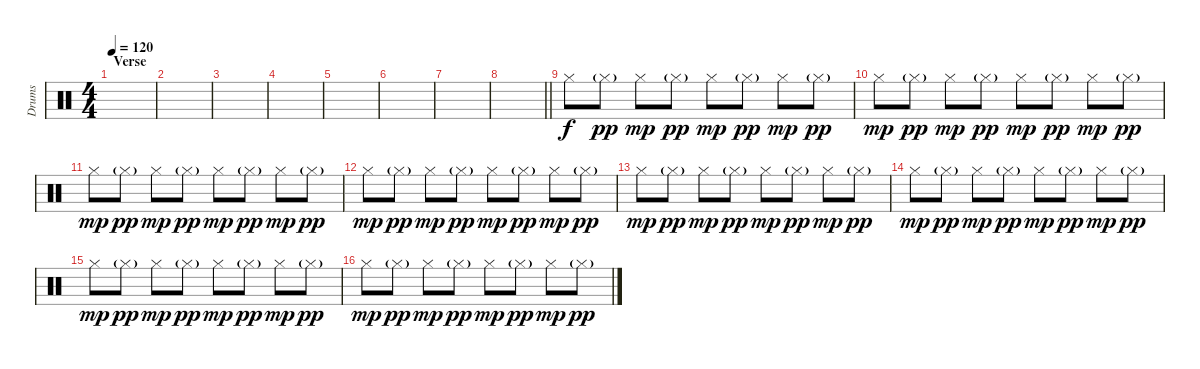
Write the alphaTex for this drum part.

\track ("Drums" "Drums") {instrument percussion}
\staff {score}
\articulation defaults
\ts (4 4)
\section ("" "Verse")
\tempo 120
\clef neutral
\ks c
|
|
|
|
|
|
|
\barLineRight lightlight
|
"Hi-Hat (closed)".8 "Hi-Hat (closed)"{g}.8{dy pp} "Hi-Hat (closed)".8{dy mp} "Hi-Hat (closed)"{g}.8{dy pp} "Hi-Hat (closed)".8{dy mp} "Hi-Hat (closed)"{g}.8{dy pp} "Hi-Hat (closed)".8{dy mp} "Hi-Hat (closed)"{g}.8{dy pp} |
"Hi-Hat (closed)".8{dy mp} "Hi-Hat (closed)"{g}.8{dy pp} "Hi-Hat (closed)".8{dy mp} "Hi-Hat (closed)"{g}.8{dy pp} "Hi-Hat (closed)".8{dy mp} "Hi-Hat (closed)"{g}.8{dy pp} "Hi-Hat (closed)".8{dy mp} "Hi-Hat (closed)"{g}.8{dy pp} |
"Hi-Hat (closed)".8{dy mp} "Hi-Hat (closed)"{g}.8{dy pp} "Hi-Hat (closed)".8{dy mp} "Hi-Hat (closed)"{g}.8{dy pp} "Hi-Hat (closed)".8{dy mp} "Hi-Hat (closed)"{g}.8{dy pp} "Hi-Hat (closed)".8{dy mp} "Hi-Hat (closed)"{g}.8{dy pp} |
"Hi-Hat (closed)".8{dy mp} "Hi-Hat (closed)"{g}.8{dy pp} "Hi-Hat (closed)".8{dy mp} "Hi-Hat (closed)"{g}.8{dy pp} "Hi-Hat (closed)".8{dy mp} "Hi-Hat (closed)"{g}.8{dy pp} "Hi-Hat (closed)".8{dy mp} "Hi-Hat (closed)"{g}.8{dy pp} |
"Hi-Hat (closed)".8{dy mp} "Hi-Hat (closed)"{g}.8{dy pp} "Hi-Hat (closed)".8{dy mp} "Hi-Hat (closed)"{g}.8{dy pp} "Hi-Hat (closed)".8{dy mp} "Hi-Hat (closed)"{g}.8{dy pp} "Hi-Hat (closed)".8{dy mp} "Hi-Hat (closed)"{g}.8{dy pp} |
"Hi-Hat (closed)".8{dy mp} "Hi-Hat (closed)"{g}.8{dy pp} "Hi-Hat (closed)".8{dy mp} "Hi-Hat (closed)"{g}.8{dy pp} "Hi-Hat (closed)".8{dy mp} "Hi-Hat (closed)"{g}.8{dy pp} "Hi-Hat (closed)".8{dy mp} "Hi-Hat (closed)"{g}.8{dy pp} |
"Hi-Hat (closed)".8{dy mp} "Hi-Hat (closed)"{g}.8{dy pp} "Hi-Hat (closed)".8{dy mp} "Hi-Hat (closed)"{g}.8{dy pp} "Hi-Hat (closed)".8{dy mp} "Hi-Hat (closed)"{g}.8{dy pp} "Hi-Hat (closed)".8{dy mp} "Hi-Hat (closed)"{g}.8{dy pp} |
"Hi-Hat (closed)".8{dy mp} "Hi-Hat (closed)"{g}.8{dy pp} "Hi-Hat (closed)".8{dy mp} "Hi-Hat (closed)"{g}.8{dy pp} "Hi-Hat (closed)".8{dy mp} "Hi-Hat (closed)"{g}.8{dy pp} "Hi-Hat (closed)".8{dy mp} "Hi-Hat (closed)"{g}.8{dy pp}
